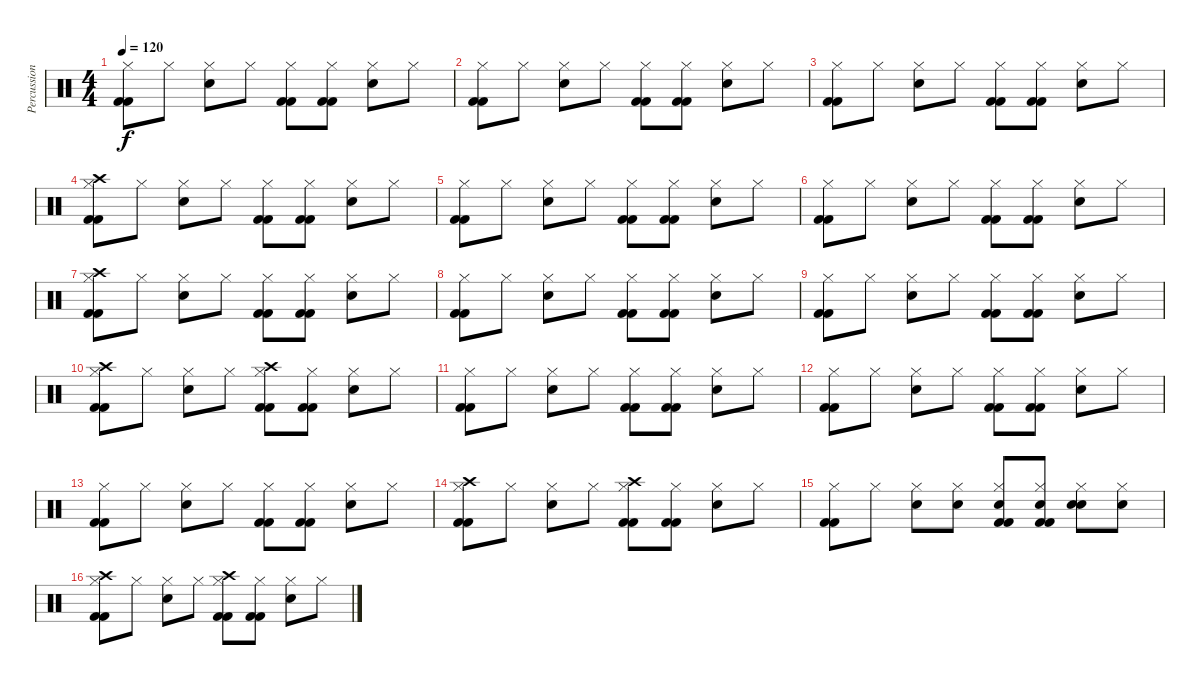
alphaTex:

\track ("Percussion" "Percussion") {instrument percussion}
\staff {score}
\articulation defaults
\ts (4 4)
\tempo 120
\clef neutral
\ks c
("Kick (hit) 2" "Hi-Hat (closed)" "Kick (hit) 2").8{dy f} "Hi-Hat (closed)".8 ("Snare (hit) 2" "Hi-Hat (closed)").8 "Hi-Hat (closed)".8 ("Kick (hit) 2" "Hi-Hat (closed)" "Kick (hit) 2").8 ("Kick (hit) 2" "Hi-Hat (closed)" "Kick (hit) 2").8 ("Snare (hit) 2" "Hi-Hat (closed)").8 "Hi-Hat (closed)".8 |
("Kick (hit) 2" "Hi-Hat (closed)" "Kick (hit) 2").8 "Hi-Hat (closed)".8 ("Snare (hit) 2" "Hi-Hat (closed)").8 "Hi-Hat (closed)".8 ("Kick (hit) 2" "Hi-Hat (closed)" "Kick (hit) 2").8 ("Kick (hit) 2" "Hi-Hat (closed)" "Kick (hit) 2").8 ("Snare (hit) 2" "Hi-Hat (closed)").8 "Hi-Hat (closed)".8 |
("Kick (hit) 2" "Hi-Hat (closed)" "Kick (hit) 2").8 "Hi-Hat (closed)".8 ("Snare (hit) 2" "Hi-Hat (closed)").8 "Hi-Hat (closed)".8 ("Kick (hit) 2" "Hi-Hat (closed)" "Kick (hit) 2").8 ("Kick (hit) 2" "Hi-Hat (closed)" "Kick (hit) 2").8 ("Snare (hit) 2" "Hi-Hat (closed)").8 "Hi-Hat (closed)".8 |
("Kick (hit) 2" "Hi-Hat (closed)" "Kick (hit) 2" "Crash high (hit)").8 "Hi-Hat (closed)".8 ("Snare (hit) 2" "Hi-Hat (closed)").8 "Hi-Hat (closed)".8 ("Kick (hit) 2" "Hi-Hat (closed)" "Kick (hit) 2").8 ("Kick (hit) 2" "Hi-Hat (closed)" "Kick (hit) 2").8 ("Snare (hit) 2" "Hi-Hat (closed)").8 "Hi-Hat (closed)".8 |
("Kick (hit) 2" "Hi-Hat (closed)" "Kick (hit) 2").8 "Hi-Hat (closed)".8 ("Snare (hit) 2" "Hi-Hat (closed)").8 "Hi-Hat (closed)".8 ("Kick (hit) 2" "Hi-Hat (closed)" "Kick (hit) 2").8 ("Kick (hit) 2" "Hi-Hat (closed)" "Kick (hit) 2").8 ("Snare (hit) 2" "Hi-Hat (closed)").8 "Hi-Hat (closed)".8 |
("Kick (hit) 2" "Hi-Hat (closed)" "Kick (hit) 2").8 "Hi-Hat (closed)".8 ("Snare (hit) 2" "Hi-Hat (closed)").8 "Hi-Hat (closed)".8 ("Kick (hit) 2" "Hi-Hat (closed)" "Kick (hit) 2").8 ("Kick (hit) 2" "Hi-Hat (closed)" "Kick (hit) 2").8 ("Snare (hit) 2" "Hi-Hat (closed)").8 "Hi-Hat (closed)".8 |
("Kick (hit) 2" "Hi-Hat (closed)" "Kick (hit) 2" "Crash high (hit)").8 "Hi-Hat (closed)".8 ("Snare (hit) 2" "Hi-Hat (closed)").8 "Hi-Hat (closed)".8 ("Kick (hit) 2" "Hi-Hat (closed)" "Kick (hit) 2").8 ("Kick (hit) 2" "Hi-Hat (closed)" "Kick (hit) 2").8 ("Snare (hit) 2" "Hi-Hat (closed)").8 "Hi-Hat (closed)".8 |
("Kick (hit) 2" "Hi-Hat (closed)" "Kick (hit) 2").8 "Hi-Hat (closed)".8 ("Snare (hit) 2" "Hi-Hat (closed)").8 "Hi-Hat (closed)".8 ("Kick (hit) 2" "Hi-Hat (closed)" "Kick (hit) 2").8 ("Kick (hit) 2" "Hi-Hat (closed)" "Kick (hit) 2").8 ("Snare (hit) 2" "Hi-Hat (closed)").8 "Hi-Hat (closed)".8 |
("Kick (hit) 2" "Hi-Hat (closed)" "Kick (hit) 2").8 "Hi-Hat (closed)".8 ("Snare (hit) 2" "Hi-Hat (closed)").8 "Hi-Hat (closed)".8 ("Kick (hit) 2" "Hi-Hat (closed)" "Kick (hit) 2").8 ("Kick (hit) 2" "Hi-Hat (closed)" "Kick (hit) 2").8 ("Snare (hit) 2" "Hi-Hat (closed)").8 "Hi-Hat (closed)".8 |
("Kick (hit) 2" "Hi-Hat (closed)" "Kick (hit) 2" "Crash high (hit)").8 "Hi-Hat (closed)".8 ("Snare (hit) 2" "Hi-Hat (closed)").8 "Hi-Hat (closed)".8 ("Kick (hit) 2" "Hi-Hat (closed)" "Kick (hit) 2" "Crash high (hit)").8 ("Kick (hit) 2" "Hi-Hat (closed)" "Kick (hit) 2").8 ("Snare (hit) 2" "Hi-Hat (closed)").8 "Hi-Hat (closed)".8 |
("Kick (hit) 2" "Hi-Hat (closed)" "Kick (hit) 2").8 "Hi-Hat (closed)".8 ("Snare (hit) 2" "Hi-Hat (closed)").8 "Hi-Hat (closed)".8 ("Kick (hit) 2" "Hi-Hat (closed)" "Kick (hit) 2").8 ("Kick (hit) 2" "Hi-Hat (closed)" "Kick (hit) 2").8 ("Snare (hit) 2" "Hi-Hat (closed)").8 "Hi-Hat (closed)".8 |
("Kick (hit) 2" "Hi-Hat (closed)" "Kick (hit) 2").8 "Hi-Hat (closed)".8 ("Snare (hit) 2" "Hi-Hat (closed)").8 "Hi-Hat (closed)".8 ("Kick (hit) 2" "Hi-Hat (closed)" "Kick (hit) 2").8 ("Kick (hit) 2" "Hi-Hat (closed)" "Kick (hit) 2").8 ("Snare (hit) 2" "Hi-Hat (closed)").8 "Hi-Hat (closed)".8 |
("Kick (hit) 2" "Hi-Hat (closed)" "Kick (hit) 2").8 "Hi-Hat (closed)".8 ("Snare (hit) 2" "Hi-Hat (closed)").8 "Hi-Hat (closed)".8 ("Kick (hit) 2" "Hi-Hat (closed)" "Kick (hit) 2").8 ("Kick (hit) 2" "Hi-Hat (closed)" "Kick (hit) 2").8 ("Snare (hit) 2" "Hi-Hat (closed)").8 "Hi-Hat (closed)".8 |
("Kick (hit) 2" "Hi-Hat (closed)" "Kick (hit) 2" "Crash high (hit)").8 "Hi-Hat (closed)".8 ("Snare (hit) 2" "Hi-Hat (closed)").8 "Hi-Hat (closed)".8 ("Kick (hit) 2" "Hi-Hat (closed)" "Kick (hit) 2" "Crash high (hit)").8 ("Kick (hit) 2" "Hi-Hat (closed)" "Kick (hit) 2").8 ("Snare (hit) 2" "Hi-Hat (closed)").8 "Hi-Hat (closed)".8 |
("Kick (hit) 2" "Hi-Hat (closed)" "Kick (hit) 2").8 "Hi-Hat (closed)".8 ("Snare (hit) 2" "Hi-Hat (closed)").8 ("Hi-Hat (closed)" "Snare (hit) 2").8 ("Kick (hit) 2" "Hi-Hat (closed)" "Kick (hit) 2" "Snare (hit) 2").8 ("Kick (hit) 2" "Hi-Hat (closed)" "Kick (hit) 2" "Snare (hit) 2").8 ("Snare (hit) 2" "Hi-Hat (closed)" "Snare (hit) 2").8 ("Hi-Hat (closed)" "Snare (hit) 2").8 |
("Kick (hit) 2" "Hi-Hat (closed)" "Kick (hit) 2" "Crash high (hit)").8 "Hi-Hat (closed)".8 ("Snare (hit) 2" "Hi-Hat (closed)").8 "Hi-Hat (closed)".8 ("Kick (hit) 2" "Hi-Hat (closed)" "Kick (hit) 2" "Crash high (hit)").8 ("Kick (hit) 2" "Hi-Hat (closed)" "Kick (hit) 2").8 ("Snare (hit) 2" "Hi-Hat (closed)").8 "Hi-Hat (closed)".8
